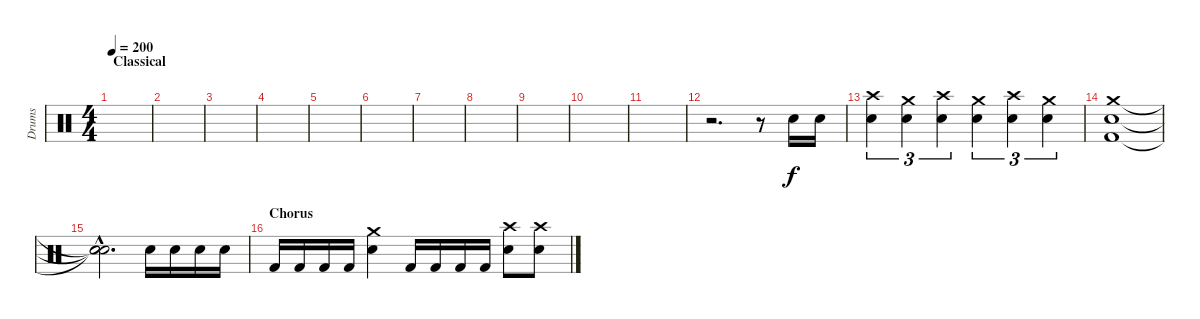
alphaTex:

\track ("Drums" "Drums") {instrument percussion}
\staff {score}
\articulation defaults
\ts (4 4)
\section ("" "Classical")
\tempo 200
\clef neutral
\ks c
|
|
|
|
|
|
|
|
|
|
|
r.2{d} r.8 "Electric Snare (hit)".16 "Electric Snare (hit)".16 |
("Crash high (hit)" "Electric Snare (hit)").4{tu (3 2)} ("Crash medium (hit)" "Electric Snare (hit)").4{tu (3 2)} ("Crash high (hit)" "Snare (hit) 2").4{tu (3 2)} ("Crash medium (hit)" "Electric Snare (hit)").4{tu (3 2)} ("Crash high (hit)" "Electric Snare (hit)").4{tu (3 2)} ("Crash medium (hit)" "Snare (hit) 2").4{tu (3 2)} |
("Kick (hit) 2" "Crash medium (hit)" "Electric Snare (hit)").1 |
("Snare (hit)"{hac t} "Snare (hit)"{hac t} "Snare (hit)"{hac t}).2{d} "Electric Snare (hit)".16 "Electric Snare (hit)".16 "Electric Snare (hit)".16 "Electric Snare (hit)".16 |
\section ("" "Chorus")
"Kick (hit) 2".16 "Kick (hit) 2".16 "Kick (hit) 2".16 "Kick (hit) 2".16 ("Crash medium (hit)" "Electric Snare (hit)").4 "Kick (hit) 2".16 "Kick (hit) 2".16 "Kick (hit) 2".16 "Kick (hit) 2".16 ("Crash high (hit)" "Electric Snare (hit)").8 ("Crash high (hit)" "Electric Snare (hit)").8
